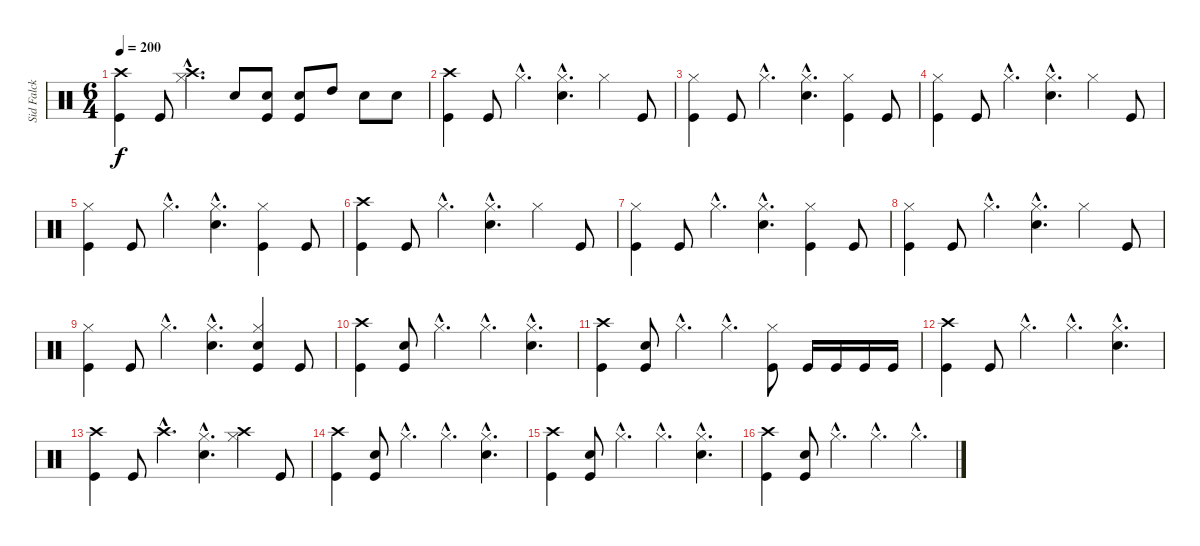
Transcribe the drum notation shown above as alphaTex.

\track ("Sid Falck - drums" "Sid Falck ") {instrument percussion}
\staff {score}
\articulation defaults
\ts (6 4)
\tempo 200
\clef neutral
\ks c
("Crash high (hit)" "Kick (hit)").4{dy f} "Kick (hit)".8 ("Crash high (hit)"{hac} "Hi-Hat (closed)"{hac}).4{d} "Electric Snare (hit)".8 ("Electric Snare (hit)" "Kick (hit)").8 ("Electric Snare (hit)" "Kick (hit)").8 "High Tom (hit)".8 "Electric Snare (hit)".8 "Electric Snare (hit)".8 |
("Crash high (hit)" "Kick (hit)").4 "Kick (hit)".8 "Hi-Hat (closed)"{hac}.4{d} ("Hi-Hat (closed)"{hac} "Electric Snare (hit)"{hac}).4{d} "Hi-Hat (closed)".4 "Kick (hit)".8 |
("Hi-Hat (closed)" "Kick (hit)").4 "Kick (hit)".8 "Hi-Hat (closed)"{hac}.4{d} ("Hi-Hat (closed)"{hac} "Electric Snare (hit)"{hac}).4{d} ("Hi-Hat (closed)" "Kick (hit)").4 "Kick (hit)".8 |
("Hi-Hat (closed)" "Kick (hit)").4 "Kick (hit)".8 "Hi-Hat (closed)"{hac}.4{d} ("Hi-Hat (closed)"{hac} "Electric Snare (hit)"{hac}).4{d} "Hi-Hat (closed)".4 "Kick (hit)".8 |
("Hi-Hat (closed)" "Kick (hit)").4 "Kick (hit)".8 "Hi-Hat (closed)"{hac}.4{d} ("Hi-Hat (closed)"{hac} "Electric Snare (hit)"{hac}).4{d} ("Hi-Hat (closed)" "Kick (hit)").4 "Kick (hit)".8 |
("Crash high (hit)" "Kick (hit)").4 "Kick (hit)".8 "Hi-Hat (closed)"{hac}.4{d} ("Hi-Hat (closed)"{hac} "Electric Snare (hit)"{hac}).4{d} "Hi-Hat (closed)".4 "Kick (hit)".8 |
("Hi-Hat (closed)" "Kick (hit)").4 "Kick (hit)".8 "Hi-Hat (closed)"{hac}.4{d} ("Hi-Hat (closed)"{hac} "Electric Snare (hit)"{hac}).4{d} ("Hi-Hat (closed)" "Kick (hit)").4 "Kick (hit)".8 |
("Hi-Hat (closed)" "Kick (hit)").4 "Kick (hit)".8 "Hi-Hat (closed)"{hac}.4{d} ("Hi-Hat (closed)"{hac} "Electric Snare (hit)"{hac}).4{d} "Hi-Hat (closed)".4 "Kick (hit)".8 |
("Hi-Hat (closed)" "Kick (hit)").4 "Kick (hit)".8 "Hi-Hat (closed)"{hac}.4{d} ("Hi-Hat (closed)"{hac} "Electric Snare (hit)"{hac}).4{d} ("Hi-Hat (closed)" "Electric Snare (hit)" "Kick (hit)").4 "Kick (hit)".8 |
("Crash high (hit)" "Kick (hit)").4 ("Electric Snare (hit)" "Kick (hit)").8 "Hi-Hat (closed)"{hac}.4{d} "Hi-Hat (closed)"{hac}.4{d} ("Hi-Hat (closed)"{hac} "Electric Snare (hit)"{hac}).4{d} |
("Crash high (hit)" "Kick (hit)").4 ("Electric Snare (hit)" "Kick (hit)").8 "Hi-Hat (closed)"{hac}.4{d} "Hi-Hat (closed)"{hac}.4{d} ("Hi-Hat (closed)" "Kick (hit)").8 "Kick (hit)".16 "Kick (hit)".16 "Kick (hit)".16 "Kick (hit)".16 |
("Crash high (hit)" "Kick (hit)").4 "Kick (hit)".8 "Hi-Hat (closed)"{hac}.4{d} "Hi-Hat (closed)"{hac}.4{d} ("Hi-Hat (closed)"{hac} "Electric Snare (hit)"{hac}).4{d} |
("Crash high (hit)" "Kick (hit)").4 "Kick (hit)".8 "Crash high (hit)"{hac}.4{d} ("Hi-Hat (closed)"{hac} "Electric Snare (hit)"{hac}).4{d} ("Crash high (hit)" "Hi-Hat (closed)").4 "Kick (hit)".8 |
("Crash high (hit)" "Kick (hit)").4 ("Electric Snare (hit)" "Kick (hit)").8 "Hi-Hat (closed)"{hac}.4{d} "Hi-Hat (closed)"{hac}.4{d} ("Hi-Hat (closed)"{hac} "Electric Snare (hit)"{hac}).4{d} |
("Crash high (hit)" "Kick (hit)").4 ("Electric Snare (hit)" "Kick (hit)").8 "Hi-Hat (closed)"{hac}.4{d} "Hi-Hat (closed)"{hac}.4{d} ("Hi-Hat (closed)"{hac} "Electric Snare (hit)"{hac}).4{d} |
("Crash high (hit)" "Kick (hit)").4 ("Electric Snare (hit)" "Kick (hit)").8 "Hi-Hat (closed)"{hac}.4{d} "Hi-Hat (closed)"{hac}.4{d} "Hi-Hat (closed)"{hac}.4{d}
